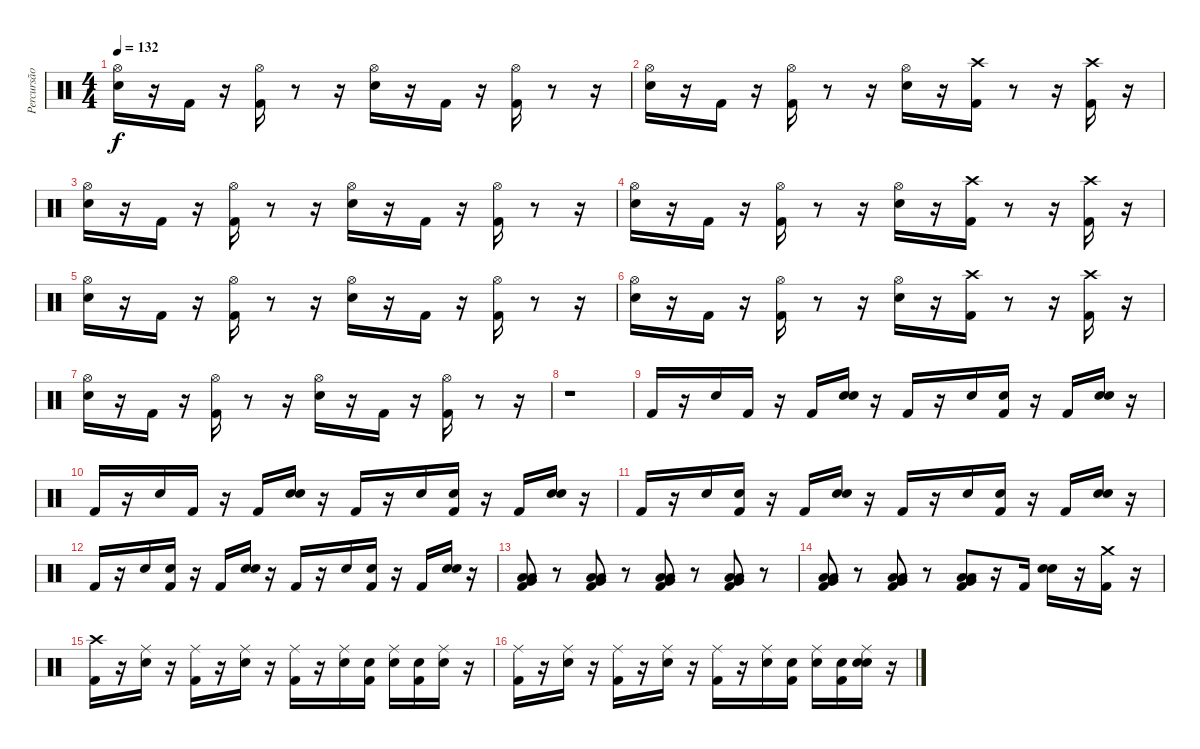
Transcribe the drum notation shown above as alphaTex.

\track ("Percursão" "Percursão") {instrument percussion}
\staff {score}
\articulation defaults
\ts (4 4)
\tempo 132
\clef neutral
\ks c
("Electric Snare (hit)" "Hi-Hat (open)").16{dy f} r.16 "Kick (hit) 2".16 r.16 ("Kick (hit) 2" "Hi-Hat (open)").16 r.8 r.16 ("Electric Snare (hit)" "Hi-Hat (open)").16 r.16 "Kick (hit) 2".16 r.16 ("Kick (hit) 2" "Hi-Hat (open)").16 r.8 r.16 |
("Electric Snare (hit)" "Hi-Hat (open)").16 r.16 "Kick (hit) 2".16 r.16 ("Kick (hit) 2" "Hi-Hat (open)").16 r.8 r.16 ("Electric Snare (hit)" "Hi-Hat (open)").16 r.16 ("Kick (hit) 2" "Crash high (hit)").16 r.8 r.16 ("Kick (hit) 2" "Crash high (hit)").16 r.16 |
("Electric Snare (hit)" "Hi-Hat (open)").16 r.16 "Kick (hit) 2".16 r.16 ("Kick (hit) 2" "Hi-Hat (open)").16 r.8 r.16 ("Electric Snare (hit)" "Hi-Hat (open)").16 r.16 "Kick (hit) 2".16 r.16 ("Kick (hit) 2" "Hi-Hat (open)").16 r.8 r.16 |
("Electric Snare (hit)" "Hi-Hat (open)").16 r.16 "Kick (hit) 2".16 r.16 ("Kick (hit) 2" "Hi-Hat (open)").16 r.8 r.16 ("Electric Snare (hit)" "Hi-Hat (open)").16 r.16 ("Kick (hit) 2" "Crash high (hit)").16 r.8 r.16 ("Kick (hit) 2" "Crash high (hit)").16 r.16 |
("Electric Snare (hit)" "Hi-Hat (open)").16 r.16 "Kick (hit) 2".16 r.16 ("Kick (hit) 2" "Hi-Hat (open)").16 r.8 r.16 ("Electric Snare (hit)" "Hi-Hat (open)").16 r.16 "Kick (hit) 2".16 r.16 ("Kick (hit) 2" "Hi-Hat (open)").16 r.8 r.16 |
("Electric Snare (hit)" "Hi-Hat (open)").16 r.16 "Kick (hit) 2".16 r.16 ("Kick (hit) 2" "Hi-Hat (open)").16 r.8 r.16 ("Electric Snare (hit)" "Hi-Hat (open)").16 r.16 ("Kick (hit) 2" "Crash high (hit)").16 r.8 r.16 ("Kick (hit) 2" "Crash high (hit)").16 r.16 |
("Electric Snare (hit)" "Hi-Hat (open)").16 r.16 "Kick (hit) 2".16 r.16 ("Kick (hit) 2" "Hi-Hat (open)").16 r.8 r.16 ("Electric Snare (hit)" "Hi-Hat (open)").16 r.16 "Kick (hit) 2".16 r.16 ("Kick (hit) 2" "Hi-Hat (open)").16 r.8 r.16 |
r.1 |
"Kick (hit) 2".16 r.16 "Electric Snare (hit)".16 "Kick (hit) 2".16 r.16 "Kick (hit) 2".16 ("Snare (hit)" "Electric Snare (hit)").16 r.16 "Kick (hit) 2".16 r.16 "Electric Snare (hit)".16 ("Snare (hit)" "Kick (hit) 2").16 r.16 "Kick (hit) 2".16 ("Snare (hit)" "Electric Snare (hit)").16 r.16 |
"Kick (hit) 2".16 r.16 "Electric Snare (hit)".16 "Kick (hit) 2".16 r.16 "Kick (hit) 2".16 ("Snare (hit)" "Electric Snare (hit)").16 r.16 "Kick (hit) 2".16 r.16 "Electric Snare (hit)".16 ("Snare (hit)" "Kick (hit) 2").16 r.16 "Kick (hit) 2".16 ("Snare (hit)" "Electric Snare (hit)").16 r.16 |
"Kick (hit) 2".16 r.16 "Electric Snare (hit)".16 ("Snare (hit)" "Kick (hit) 2").16 r.16 "Kick (hit) 2".16 ("Snare (hit)" "Electric Snare (hit)").16 r.16 "Kick (hit) 2".16 r.16 "Electric Snare (hit)".16 ("Snare (hit)" "Kick (hit) 2").16 r.16 "Kick (hit) 2".16 ("Snare (hit)" "Electric Snare (hit)").16 r.16 |
"Kick (hit) 2".16 r.16 "Electric Snare (hit)".16 ("Snare (hit)" "Kick (hit) 2").16 r.16 "Kick (hit) 2".16 ("Snare (hit)" "Electric Snare (hit)").16 r.16 "Kick (hit) 2".16 r.16 "Electric Snare (hit)".16 ("Snare (hit)" "Kick (hit) 2").16 r.16 "Kick (hit) 2".16 ("Snare (hit)" "Electric Snare (hit)").16 r.16 |
("Very Low Tom (hit)" "Low Tom (hit)" "Low Floor Tom (hit)" "Kick (hit) 2").8 r.8 ("Very Low Tom (hit)" "Low Floor Tom (hit)" "Kick (hit) 2" "Low Tom (hit)").8 r.8 ("Kick (hit) 2" "Very Low Tom (hit)" "Low Floor Tom (hit)" "Low Tom (hit)").8 r.8 ("Kick (hit) 2" "Very Low Tom (hit)" "Low Floor Tom (hit)" "Low Tom (hit)").8 r.8 |
("Very Low Tom (hit)" "Low Floor Tom (hit)" "Low Tom (hit)" "Kick (hit) 2").8 r.8 ("Kick (hit) 2" "Very Low Tom (hit)" "Low Floor Tom (hit)" "Low Tom (hit)").8 r.8 ("Kick (hit) 2" "Very Low Tom (hit)" "Low Tom (hit)" "Low Floor Tom (hit)").8 r.16 "Kick (hit) 2".16 ("Snare (hit)" "Electric Snare (hit)").16 r.16 ("Kick (hit) 2" "Crash medium (hit)").16 r.16 |
("Crash high (hit)" "Kick (hit) 2").16 r.16 ("Ride (middle)" "Electric Snare (hit)").16 r.16 ("Ride (middle)" "Kick (hit) 2").16 r.16 ("Ride (middle)" "Electric Snare (hit)").16 r.16 ("Ride (middle)" "Kick (hit) 2").16 r.16 ("Ride (middle)" "Electric Snare (hit)").16 ("Snare (hit)" "Kick (hit) 2").16 ("Snare (hit)" "Ride (middle)").16 ("Snare (hit)" "Kick (hit) 2").16 ("Ride (middle)" "Electric Snare (hit)").16 r.16 |
("Ride (middle)" "Kick (hit) 2").16 r.16 ("Ride (middle)" "Electric Snare (hit)").16 r.16 ("Ride (middle)" "Kick (hit) 2").16 r.16 ("Ride (middle)" "Electric Snare (hit)").16 r.16 ("Ride (middle)" "Kick (hit) 2").16 r.16 ("Ride (middle)" "Electric Snare (hit)").16 ("Snare (hit)" "Kick (hit) 2").16 ("Snare (hit)" "Ride (middle)").16 ("Snare (hit)" "Kick (hit) 2").16 ("Snare (hit)" "Ride (middle)" "Electric Snare (hit)").16 r.16
